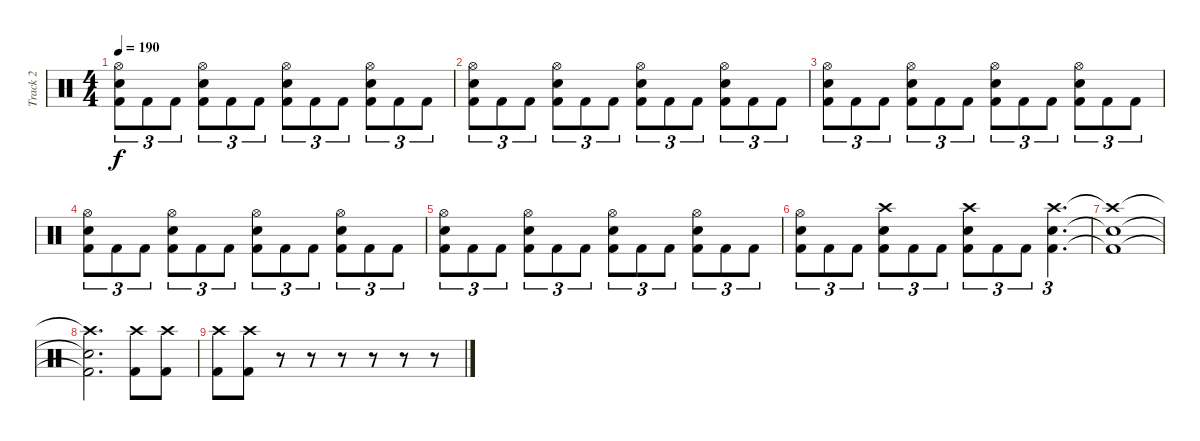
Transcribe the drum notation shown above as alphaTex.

\track ("Track 2" "Track 2") {instrument percussion}
\staff {score}
\articulation defaults
\ts (4 4)
\tempo 190
\clef neutral
\ks c
("Hi-Hat (open)" "Snare (hit) 2" "Kick (hit) 2").8{tu (3 2) dy f} "Kick (hit) 2".8{tu (3 2)} "Kick (hit) 2".8{tu (3 2)} ("Hi-Hat (open)" "Snare (hit) 2" "Kick (hit) 2").8{tu (3 2)} "Kick (hit) 2".8{tu (3 2)} "Kick (hit) 2".8{tu (3 2)} ("Hi-Hat (open)" "Snare (hit) 2" "Kick (hit) 2").8{tu (3 2)} "Kick (hit) 2".8{tu (3 2)} "Kick (hit) 2".8{tu (3 2)} ("Hi-Hat (open)" "Snare (hit) 2" "Kick (hit) 2").8{tu (3 2)} "Kick (hit) 2".8{tu (3 2)} "Kick (hit) 2".8{tu (3 2)} |
("Hi-Hat (open)" "Snare (hit) 2" "Kick (hit) 2").8{tu (3 2)} "Kick (hit) 2".8{tu (3 2)} "Kick (hit) 2".8{tu (3 2)} ("Hi-Hat (open)" "Snare (hit) 2" "Kick (hit) 2").8{tu (3 2)} "Kick (hit) 2".8{tu (3 2)} "Kick (hit) 2".8{tu (3 2)} ("Hi-Hat (open)" "Snare (hit) 2" "Kick (hit) 2").8{tu (3 2)} "Kick (hit) 2".8{tu (3 2)} "Kick (hit) 2".8{tu (3 2)} ("Hi-Hat (open)" "Snare (hit) 2" "Kick (hit) 2").8{tu (3 2)} "Kick (hit) 2".8{tu (3 2)} "Kick (hit) 2".8{tu (3 2)} |
("Hi-Hat (open)" "Snare (hit) 2" "Kick (hit) 2").8{tu (3 2)} "Kick (hit) 2".8{tu (3 2)} "Kick (hit) 2".8{tu (3 2)} ("Hi-Hat (open)" "Snare (hit) 2" "Kick (hit) 2").8{tu (3 2)} "Kick (hit) 2".8{tu (3 2)} "Kick (hit) 2".8{tu (3 2)} ("Hi-Hat (open)" "Snare (hit) 2" "Kick (hit) 2").8{tu (3 2)} "Kick (hit) 2".8{tu (3 2)} "Kick (hit) 2".8{tu (3 2)} ("Hi-Hat (open)" "Snare (hit) 2" "Kick (hit) 2").8{tu (3 2)} "Kick (hit) 2".8{tu (3 2)} "Kick (hit) 2".8{tu (3 2)} |
("Hi-Hat (open)" "Snare (hit) 2" "Kick (hit) 2").8{tu (3 2)} "Kick (hit) 2".8{tu (3 2)} "Kick (hit) 2".8{tu (3 2)} ("Hi-Hat (open)" "Snare (hit) 2" "Kick (hit) 2").8{tu (3 2)} "Kick (hit) 2".8{tu (3 2)} "Kick (hit) 2".8{tu (3 2)} ("Hi-Hat (open)" "Snare (hit) 2" "Kick (hit) 2").8{tu (3 2)} "Kick (hit) 2".8{tu (3 2)} "Kick (hit) 2".8{tu (3 2)} ("Hi-Hat (open)" "Snare (hit) 2" "Kick (hit) 2").8{tu (3 2)} "Kick (hit) 2".8{tu (3 2)} "Kick (hit) 2".8{tu (3 2)} |
("Hi-Hat (open)" "Snare (hit) 2" "Kick (hit) 2").8{tu (3 2)} "Kick (hit) 2".8{tu (3 2)} "Kick (hit) 2".8{tu (3 2)} ("Hi-Hat (open)" "Snare (hit) 2" "Kick (hit) 2").8{tu (3 2)} "Kick (hit) 2".8{tu (3 2)} "Kick (hit) 2".8{tu (3 2)} ("Hi-Hat (open)" "Snare (hit) 2" "Kick (hit) 2").8{tu (3 2)} "Kick (hit) 2".8{tu (3 2)} "Kick (hit) 2".8{tu (3 2)} ("Hi-Hat (open)" "Snare (hit) 2" "Kick (hit) 2").8{tu (3 2)} "Kick (hit) 2".8{tu (3 2)} "Kick (hit) 2".8{tu (3 2)} |
("Hi-Hat (open)" "Snare (hit) 2" "Kick (hit) 2").8{tu (3 2)} "Kick (hit) 2".8{tu (3 2)} "Kick (hit) 2".8{tu (3 2)} ("Crash high (hit)" "Snare (hit) 2" "Kick (hit) 2").8{tu (3 2)} "Kick (hit) 2".8{tu (3 2)} "Kick (hit) 2".8{tu (3 2)} ("Crash high (hit)" "Snare (hit) 2" "Kick (hit) 2").8{tu (3 2)} "Kick (hit) 2".8{tu (3 2)} "Kick (hit) 2".8{tu (3 2)} ("Crash high (hit)" "Snare (hit) 2" "Kick (hit) 2").4{d tu (3 2)} |
("Crash high (hit)"{t} "Snare (hit) 2"{t} "Kick (hit) 2"{t}).1 |
("Crash high (hit)"{t} "Snare (hit) 2"{t} "Kick (hit) 2"{t}).2{d} ("Crash high (hit)" "Kick (hit) 2").8 ("Crash high (hit)" "Kick (hit) 2").8 |
("Crash high (hit)" "Kick (hit) 2").8 ("Crash high (hit)" "Kick (hit) 2").8 r.8 r.8 r.8 r.8 r.8 r.8
